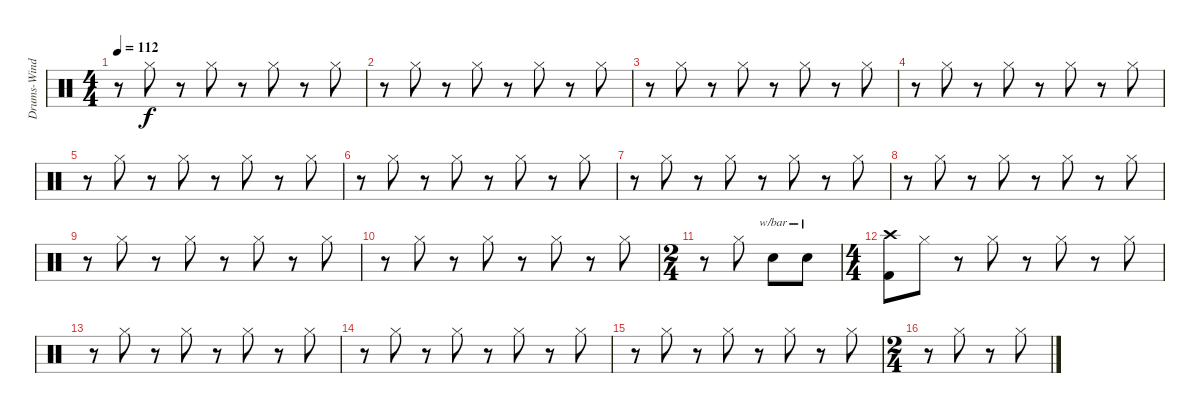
\track ("Drums-Wind (Bengerg)" "Drums-Wind") {instrument percussion}
\staff {score}
\articulation defaults
\ts (4 4)
\tempo 112
\clef neutral
\ks c
r.8{dy f} "Hi-Hat (closed)".8 r.8 "Hi-Hat (closed)".8 r.8 "Hi-Hat (closed)".8 r.8 "Hi-Hat (closed)".8 |
r.8 "Hi-Hat (closed)".8 r.8 "Hi-Hat (closed)".8 r.8 "Hi-Hat (closed)".8 r.8 "Hi-Hat (closed)".8 |
r.8 "Hi-Hat (closed)".8 r.8 "Hi-Hat (closed)".8 r.8 "Hi-Hat (closed)".8 r.8 "Hi-Hat (closed)".8 |
r.8 "Hi-Hat (closed)".8 r.8 "Hi-Hat (closed)".8 r.8 "Hi-Hat (closed)".8 r.8 "Hi-Hat (closed)".8 |
r.8 "Hi-Hat (closed)".8 r.8 "Hi-Hat (closed)".8 r.8 "Hi-Hat (closed)".8 r.8 "Hi-Hat (closed)".8 |
r.8 "Hi-Hat (closed)".8 r.8 "Hi-Hat (closed)".8 r.8 "Hi-Hat (closed)".8 r.8 "Hi-Hat (closed)".8 |
r.8 "Hi-Hat (closed)".8 r.8 "Hi-Hat (closed)".8 r.8 "Hi-Hat (closed)".8 r.8 "Hi-Hat (closed)".8 |
r.8 "Hi-Hat (closed)".8 r.8 "Hi-Hat (closed)".8 r.8 "Hi-Hat (closed)".8 r.8 "Hi-Hat (closed)".8 |
r.8 "Hi-Hat (closed)".8 r.8 "Hi-Hat (closed)".8 r.8 "Hi-Hat (closed)".8 r.8 "Hi-Hat (closed)".8 |
r.8 "Hi-Hat (closed)".8 r.8 "Hi-Hat (closed)".8 r.8 "Hi-Hat (closed)".8 r.8 "Hi-Hat (closed)".8 |
\ts (2 4)
r.8 "Hi-Hat (closed)".8 "Electric Snare (hit)".8{tbe (custom default 0 12 45 12 60 0) balance 16} "Electric Snare (hit)".8{tbe (custom default 0 12 45 12 60 0) balance 0} |
\ts (4 4)
("Crash high (hit)" "Kick (hit) 2").8{balance 8} "Hi-Hat (closed)".8 r.8 "Hi-Hat (closed)".8 r.8 "Hi-Hat (closed)".8 r.8 "Hi-Hat (closed)".8 |
r.8 "Hi-Hat (closed)".8 r.8 "Hi-Hat (closed)".8 r.8 "Hi-Hat (closed)".8 r.8 "Hi-Hat (closed)".8 |
r.8 "Hi-Hat (closed)".8 r.8 "Hi-Hat (closed)".8 r.8 "Hi-Hat (closed)".8 r.8 "Hi-Hat (closed)".8 |
r.8 "Hi-Hat (closed)".8 r.8 "Hi-Hat (closed)".8 r.8 "Hi-Hat (closed)".8 r.8 "Hi-Hat (closed)".8 |
\ts (2 4)
r.8 "Hi-Hat (closed)".8 r.8 "Hi-Hat (closed)".8
